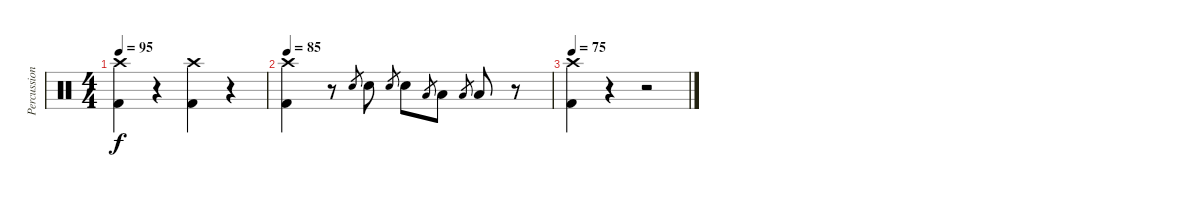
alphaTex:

\track ("Percussions" "Percussion") {instrument percussion}
\staff {score}
\articulation defaults
\ts (4 4)
\tempo 95
\clef neutral
\ks c
("Crash high (hit)" "Kick (hit) 2").4{dy f} r.4 ("Crash high (hit)" "Kick (hit) 2").4 r.4 |
\tempo 85
("Crash high (hit)" "Kick (hit) 2").4 r.8 "Snare (hit) 2".8{gr} "Snare (hit) 2".8 "Snare (hit) 2".8{gr} "Snare (hit) 2".8 "Low Tom (hit)".8{gr} "Low Tom (hit)".8 "Low Tom (hit)".8{gr} "Low Tom (hit)".8 r.8 |
\tempo 75
("Crash high (hit)" "Kick (hit) 2").4 r.4 r.2
